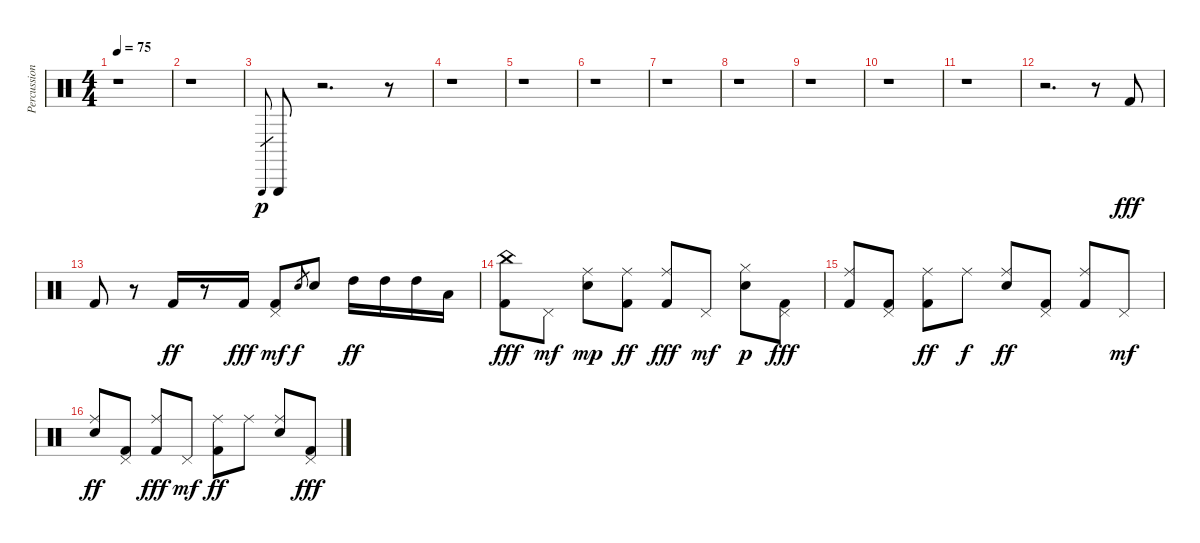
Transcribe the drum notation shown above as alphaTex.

\track ("Percussion" "Percussion") {instrument percussion}
\staff {score}
\articulation defaults
\ts (4 4)
\tempo 75
\clef neutral
\ks c
r.1{dy p} |
r.1 |
"Triangle (hit)".8{gr} "Triangle (hit)".8 r.2{d} r.8 |
r.1 |
r.1 |
r.1 |
r.1 |
r.1 |
r.1 |
r.1 |
r.1 |
r.2{d} r.8 "Kick (hit) 2".8{dy fff} |
"Kick (hit) 2".8 r.8 "Kick (hit) 2".16{dy ff} r.8 "Kick (hit) 2".16{dy fff} ("Kick (hit) 2" "Pedal Hi-Hat (hit)").8{dy mf} "Snare (hit) 2".8{gr dy f} "Snare (hit) 2".8 "High Tom (hit)".16{dy ff} "High Tom (hit)".16 "High Tom (hit)".16 "Low Tom (hit)".16 |
("Kick (hit) 2" "China (hit)").8{dy fff} "Pedal Hi-Hat (hit)".8{dy mf} ("Snare (hit) 2" "Ride (middle)").8{dy mp} ("Kick (hit) 2" "Ride (middle)").8{dy ff} ("Kick (hit) 2" "Ride (middle)").8{dy fff} "Pedal Hi-Hat (hit)".8{dy mf} ("Snare (hit) 2" "Hi-Hat (closed)").8{dy p} ("Kick (hit) 2" "Pedal Hi-Hat (hit)").8{dy fff} |
("Kick (hit) 2" "Ride (middle)").8 ("Kick (hit) 2" "Pedal Hi-Hat (hit)").8 ("Kick (hit) 2" "Ride (middle)").8{dy ff} "Ride (middle)".8{dy f} ("Snare (hit) 2" "Ride (middle)").8{dy ff} ("Kick (hit) 2" "Pedal Hi-Hat (hit)").8 ("Kick (hit) 2" "Ride (middle)").8 "Pedal Hi-Hat (hit)".8{dy mf} |
("Snare (hit) 2" "Ride (middle)").8{dy ff} ("Kick (hit) 2" "Pedal Hi-Hat (hit)").8 ("Kick (hit) 2" "Ride (middle)").8{dy fff} "Pedal Hi-Hat (hit)".8{dy mf} ("Kick (hit) 2" "Ride (middle)").8{dy ff} "Ride (middle)".8 ("Snare (hit) 2" "Ride (middle)").8 ("Kick (hit) 2" "Pedal Hi-Hat (hit)").8{dy fff}
